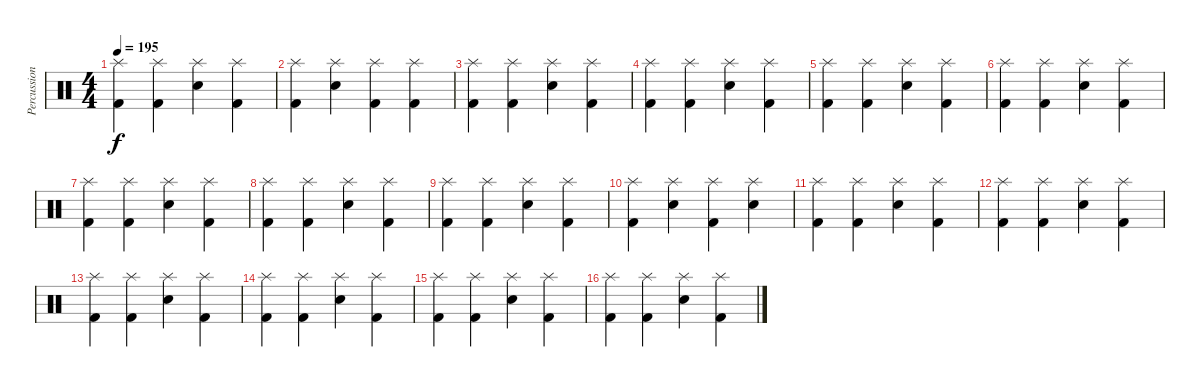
\track ("Percussion" "Percussion") {instrument percussion}
\staff {score}
\articulation defaults
\ts (4 4)
\tempo 195
\clef neutral
\ks c
("Splash (hit)" "Kick (hit) 2").4{dy f} ("Splash (hit)" "Kick (hit) 2").4 ("Splash (hit)" "Electric Snare (hit)").4 ("Splash (hit)" "Kick (hit) 2").4 |
("Splash (hit)" "Kick (hit) 2").4 ("Splash (hit)" "Electric Snare (hit)").4 ("Splash (hit)" "Kick (hit) 2").4 ("Splash (hit)" "Kick (hit) 2").4 |
("Splash (hit)" "Kick (hit) 2").4 ("Splash (hit)" "Kick (hit) 2").4 ("Splash (hit)" "Electric Snare (hit)").4 ("Splash (hit)" "Kick (hit) 2").4 |
("Splash (hit)" "Kick (hit) 2").4 ("Splash (hit)" "Kick (hit) 2").4 ("Splash (hit)" "Electric Snare (hit)").4 ("Splash (hit)" "Kick (hit) 2").4 |
("Splash (hit)" "Kick (hit) 2").4 ("Splash (hit)" "Kick (hit) 2").4 ("Splash (hit)" "Electric Snare (hit)").4 ("Splash (hit)" "Kick (hit) 2").4 |
("Splash (hit)" "Kick (hit) 2").4 ("Splash (hit)" "Kick (hit) 2").4 ("Splash (hit)" "Electric Snare (hit)").4 ("Splash (hit)" "Kick (hit) 2").4 |
("Splash (hit)" "Kick (hit) 2").4 ("Splash (hit)" "Kick (hit) 2").4 ("Splash (hit)" "Electric Snare (hit)").4 ("Splash (hit)" "Kick (hit) 2").4 |
("Splash (hit)" "Kick (hit) 2").4 ("Splash (hit)" "Kick (hit) 2").4 ("Splash (hit)" "Electric Snare (hit)").4 ("Splash (hit)" "Kick (hit) 2").4 |
("Splash (hit)" "Kick (hit) 2").4 ("Splash (hit)" "Kick (hit) 2").4 ("Splash (hit)" "Electric Snare (hit)").4 ("Splash (hit)" "Kick (hit) 2").4 |
("Splash (hit)" "Kick (hit) 2").4 ("Splash (hit)" "Electric Snare (hit)").4 ("Splash (hit)" "Kick (hit) 2").4 ("Splash (hit)" "Electric Snare (hit)").4 |
("Splash (hit)" "Kick (hit) 2").4 ("Splash (hit)" "Kick (hit) 2").4 ("Splash (hit)" "Electric Snare (hit)").4 ("Splash (hit)" "Kick (hit) 2").4 |
("Splash (hit)" "Kick (hit) 2").4 ("Splash (hit)" "Kick (hit) 2").4 ("Splash (hit)" "Electric Snare (hit)").4 ("Splash (hit)" "Kick (hit) 2").4 |
("Splash (hit)" "Kick (hit) 2").4 ("Splash (hit)" "Kick (hit) 2").4 ("Splash (hit)" "Electric Snare (hit)").4 ("Splash (hit)" "Kick (hit) 2").4 |
("Splash (hit)" "Kick (hit) 2").4 ("Splash (hit)" "Kick (hit) 2").4 ("Splash (hit)" "Electric Snare (hit)").4 ("Splash (hit)" "Kick (hit) 2").4 |
("Splash (hit)" "Kick (hit) 2").4 ("Splash (hit)" "Kick (hit) 2").4 ("Splash (hit)" "Electric Snare (hit)").4 ("Splash (hit)" "Kick (hit) 2").4 |
("Splash (hit)" "Kick (hit) 2").4 ("Splash (hit)" "Kick (hit) 2").4 ("Splash (hit)" "Electric Snare (hit)").4 ("Splash (hit)" "Kick (hit) 2").4
